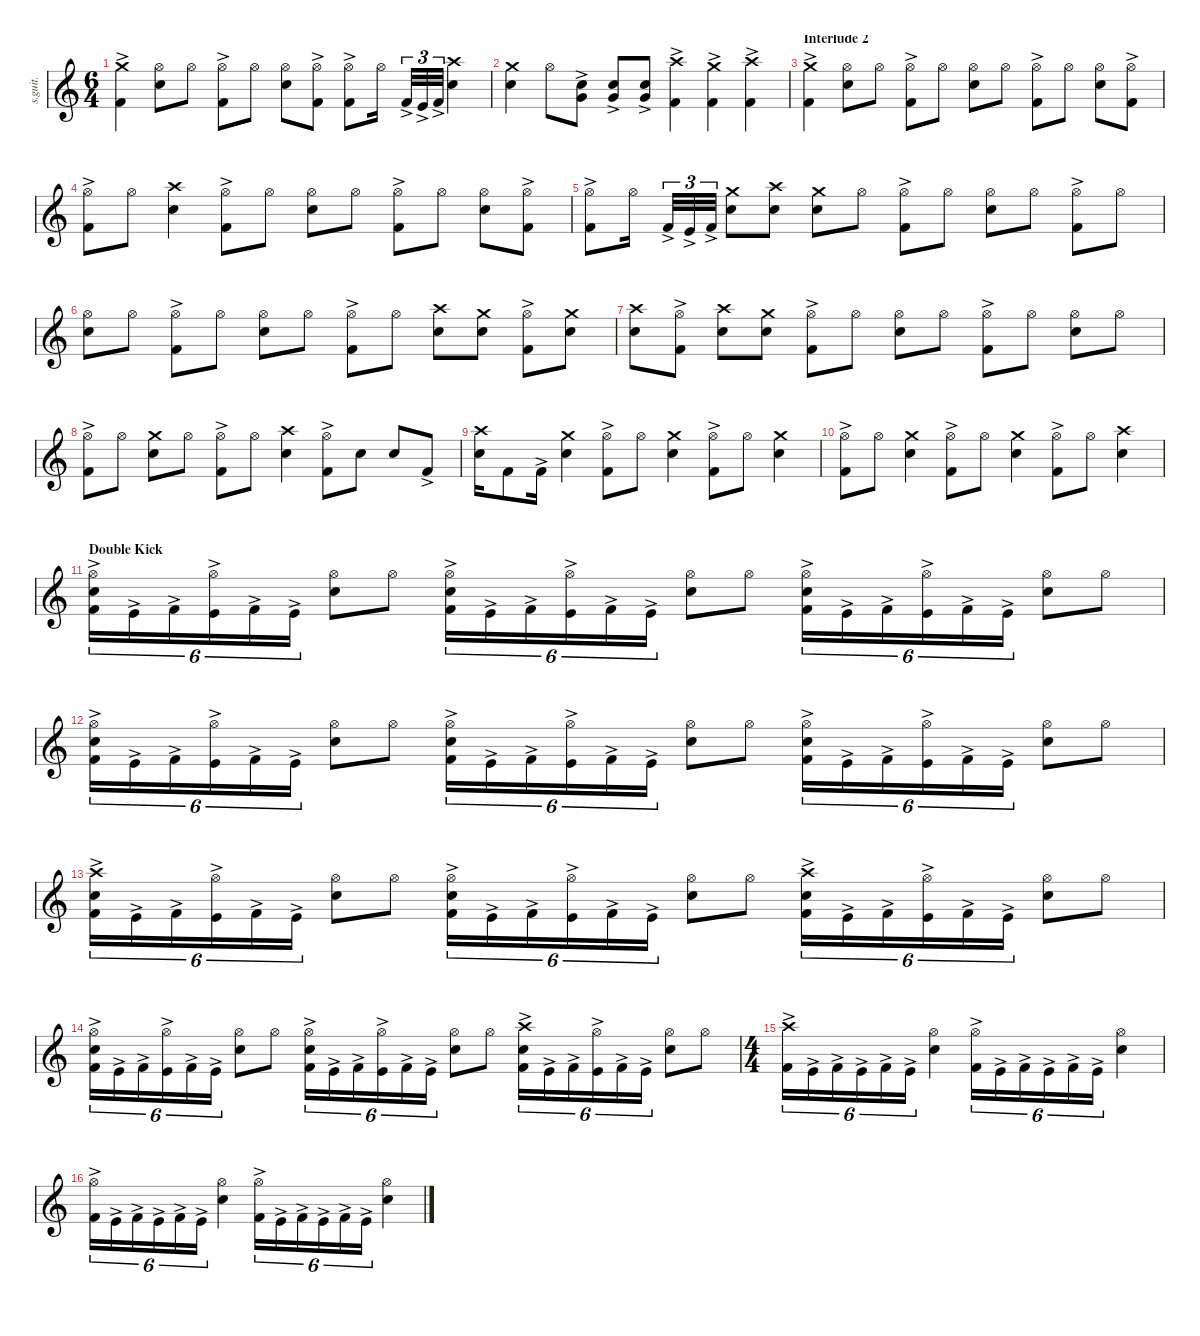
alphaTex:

\defaultSystemsLayout 4
\hideDynamics
\bracketExtendMode nobrackets
\track ("Lars Ulrich - Drums" "s.guit.") {instrument percussion}
\staff {score}
\articulation defaults
\ts (6 4)
\tempo (103 hide)
\clef g2
\ks c
("Crash medium (hit)" "Kick (hit) 2"{ac}).4{lyrics (0 "") lyrics (1 "") lyrics (2 "") lyrics (3 "") lyrics (4 "") dy f} ("Hi-Hat (open)" "Snare (hit) 2").8{lyrics (0 "") lyrics (1 "") lyrics (2 "") lyrics (3 "") lyrics (4 "")} "Hi-Hat (open)".8{lyrics (0 "") lyrics (1 "") lyrics (2 "") lyrics (3 "") lyrics (4 "")} ("Hi-Hat (open)" "Kick (hit) 2"{ac}).8{lyrics (0 "") lyrics (1 "") lyrics (2 "") lyrics (3 "") lyrics (4 "")} "Hi-Hat (open)".8{lyrics (0 "") lyrics (1 "") lyrics (2 "") lyrics (3 "") lyrics (4 "")} ("Hi-Hat (open)" "Snare (hit) 2").8{lyrics (0 "") lyrics (1 "") lyrics (2 "") lyrics (3 "") lyrics (4 "")} ("Hi-Hat (open)" "Kick (hit) 2"{ac}).8{lyrics (0 "") lyrics (1 "") lyrics (2 "") lyrics (3 "") lyrics (4 "")} ("Hi-Hat (open)" "Kick (hit) 2"{ac}).8{lyrics (0 "") lyrics (1 "") lyrics (2 "") lyrics (3 "") lyrics (4 "")} "Hi-Hat (open)".16{lyrics (0 "") lyrics (1 "") lyrics (2 "") lyrics (3 "") lyrics (4 "")} "Kick (hit) 2"{ac}.32{tu (3 2) lyrics (0 "") lyrics (1 "") lyrics (2 "") lyrics (3 "") lyrics (4 "") dy mp} "Kick (hit)"{ac}.32{tu (3 2) lyrics (0 "") lyrics (1 "") lyrics (2 "") lyrics (3 "") lyrics (4 "") dy mf} "Kick (hit) 2"{ac}.32{tu (3 2) lyrics (0 "") lyrics (1 "") lyrics (2 "") lyrics (3 "") lyrics (4 "") dy mp} ("Snare (hit) 2" "Crash high (hit)").4{lyrics (0 "") lyrics (1 "") lyrics (2 "") lyrics (3 "") lyrics (4 "") dy f} |
("Snare (hit) 2" "Crash medium (hit)").4{lyrics (0 "") lyrics (1 "") lyrics (2 "") lyrics (3 "") lyrics (4 "")} "Hi-Hat (open)".8{lyrics (0 "") lyrics (1 "") lyrics (2 "") lyrics (3 "") lyrics (4 "")} ("Very Low Tom (hit)"{ac} "Snare (hit) 2").8{lyrics (0 "") lyrics (1 "") lyrics (2 "") lyrics (3 "") lyrics (4 "")} ("Very Low Tom (hit)"{ac} "Snare (hit) 2").8{lyrics (0 "") lyrics (1 "") lyrics (2 "") lyrics (3 "") lyrics (4 "")} ("Very Low Tom (hit)"{ac} "Snare (hit) 2").8{lyrics (0 "") lyrics (1 "") lyrics (2 "") lyrics (3 "") lyrics (4 "")} ("Crash high (hit)" "Kick (hit) 2"{ac}).4{lyrics (0 "") lyrics (1 "") lyrics (2 "") lyrics (3 "") lyrics (4 "")} ("Crash medium (hit)" "Kick (hit) 2"{ac}).4{lyrics (0 "") lyrics (1 "") lyrics (2 "") lyrics (3 "") lyrics (4 "")} ("Crash high (hit)" "Kick (hit) 2"{ac}).4{lyrics (0 "") lyrics (1 "") lyrics (2 "") lyrics (3 "") lyrics (4 "")} |
\section ("" "Interlude 2")
\tempo (108 hide)
("Crash medium (hit)" "Kick (hit) 2"{ac}).4{lyrics (0 "") lyrics (1 "") lyrics (2 "") lyrics (3 "") lyrics (4 "")} ("Hi-Hat (open)" "Snare (hit) 2").8{lyrics (0 "") lyrics (1 "") lyrics (2 "") lyrics (3 "") lyrics (4 "")} "Hi-Hat (open)".8{lyrics (0 "") lyrics (1 "") lyrics (2 "") lyrics (3 "") lyrics (4 "")} ("Hi-Hat (open)" "Kick (hit) 2"{ac}).8{lyrics (0 "") lyrics (1 "") lyrics (2 "") lyrics (3 "") lyrics (4 "")} "Hi-Hat (open)".8{lyrics (0 "") lyrics (1 "") lyrics (2 "") lyrics (3 "") lyrics (4 "")} ("Hi-Hat (open)" "Snare (hit) 2").8{lyrics (0 "") lyrics (1 "") lyrics (2 "") lyrics (3 "") lyrics (4 "")} "Hi-Hat (open)".8{lyrics (0 "") lyrics (1 "") lyrics (2 "") lyrics (3 "") lyrics (4 "")} ("Hi-Hat (open)" "Kick (hit) 2"{ac}).8{lyrics (0 "") lyrics (1 "") lyrics (2 "") lyrics (3 "") lyrics (4 "")} "Hi-Hat (open)".8{lyrics (0 "") lyrics (1 "") lyrics (2 "") lyrics (3 "") lyrics (4 "")} ("Hi-Hat (open)" "Snare (hit) 2").8{lyrics (0 "") lyrics (1 "") lyrics (2 "") lyrics (3 "") lyrics (4 "")} ("Hi-Hat (open)" "Kick (hit) 2"{ac}).8{lyrics (0 "") lyrics (1 "") lyrics (2 "") lyrics (3 "") lyrics (4 "")} |
("Hi-Hat (open)" "Kick (hit) 2"{ac}).8{lyrics (0 "") lyrics (1 "") lyrics (2 "") lyrics (3 "") lyrics (4 "")} "Hi-Hat (open)".8{lyrics (0 "") lyrics (1 "") lyrics (2 "") lyrics (3 "") lyrics (4 "")} ("Crash high (hit)" "Snare (hit) 2").4{lyrics (0 "") lyrics (1 "") lyrics (2 "") lyrics (3 "") lyrics (4 "")} ("Hi-Hat (open)" "Kick (hit) 2"{ac}).8{lyrics (0 "") lyrics (1 "") lyrics (2 "") lyrics (3 "") lyrics (4 "")} "Hi-Hat (open)".8{lyrics (0 "") lyrics (1 "") lyrics (2 "") lyrics (3 "") lyrics (4 "")} ("Hi-Hat (open)" "Snare (hit) 2").8{lyrics (0 "") lyrics (1 "") lyrics (2 "") lyrics (3 "") lyrics (4 "")} "Hi-Hat (open)".8{lyrics (0 "") lyrics (1 "") lyrics (2 "") lyrics (3 "") lyrics (4 "")} ("Hi-Hat (open)" "Kick (hit) 2"{ac}).8{lyrics (0 "") lyrics (1 "") lyrics (2 "") lyrics (3 "") lyrics (4 "")} "Hi-Hat (open)".8{lyrics (0 "") lyrics (1 "") lyrics (2 "") lyrics (3 "") lyrics (4 "")} ("Hi-Hat (open)" "Snare (hit) 2").8{lyrics (0 "") lyrics (1 "") lyrics (2 "") lyrics (3 "") lyrics (4 "")} ("Hi-Hat (open)" "Kick (hit) 2"{ac}).8{lyrics (0 "") lyrics (1 "") lyrics (2 "") lyrics (3 "") lyrics (4 "")} |
("Kick (hit) 2"{ac} "Hi-Hat (open)").8{lyrics (0 "") lyrics (1 "") lyrics (2 "") lyrics (3 "") lyrics (4 "")} "Hi-Hat (open)".16{lyrics (0 "") lyrics (1 "") lyrics (2 "") lyrics (3 "") lyrics (4 "")} "Kick (hit) 2"{ac}.32{tu (3 2) lyrics (0 "") lyrics (1 "") lyrics (2 "") lyrics (3 "") lyrics (4 "") dy mp} "Kick (hit)"{ac}.32{tu (3 2) lyrics (0 "") lyrics (1 "") lyrics (2 "") lyrics (3 "") lyrics (4 "") dy mf} "Kick (hit) 2"{ac}.32{tu (3 2) lyrics (0 "") lyrics (1 "") lyrics (2 "") lyrics (3 "") lyrics (4 "") dy mp} ("Crash medium (hit)" "Snare (hit) 2").8{lyrics (0 "") lyrics (1 "") lyrics (2 "") lyrics (3 "") lyrics (4 "") dy f} ("Crash high (hit)" "Snare (hit) 2").8{lyrics (0 "") lyrics (1 "") lyrics (2 "") lyrics (3 "") lyrics (4 "")} ("Crash medium (hit)" "Snare (hit) 2").8{lyrics (0 "") lyrics (1 "") lyrics (2 "") lyrics (3 "") lyrics (4 "")} "Hi-Hat (open)".8{lyrics (0 "") lyrics (1 "") lyrics (2 "") lyrics (3 "") lyrics (4 "")} ("Hi-Hat (open)" "Kick (hit) 2"{ac}).8{lyrics (0 "") lyrics (1 "") lyrics (2 "") lyrics (3 "") lyrics (4 "")} "Hi-Hat (open)".8{lyrics (0 "") lyrics (1 "") lyrics (2 "") lyrics (3 "") lyrics (4 "")} ("Hi-Hat (open)" "Snare (hit) 2").8{lyrics (0 "") lyrics (1 "") lyrics (2 "") lyrics (3 "") lyrics (4 "")} "Hi-Hat (open)".8{lyrics (0 "") lyrics (1 "") lyrics (2 "") lyrics (3 "") lyrics (4 "")} ("Hi-Hat (open)" "Kick (hit) 2"{ac}).8{lyrics (0 "") lyrics (1 "") lyrics (2 "") lyrics (3 "") lyrics (4 "")} "Hi-Hat (open)".8{lyrics (0 "") lyrics (1 "") lyrics (2 "") lyrics (3 "") lyrics (4 "")} |
("Hi-Hat (open)" "Snare (hit) 2").8{lyrics (0 "") lyrics (1 "") lyrics (2 "") lyrics (3 "") lyrics (4 "")} "Hi-Hat (open)".8{lyrics (0 "") lyrics (1 "") lyrics (2 "") lyrics (3 "") lyrics (4 "")} ("Hi-Hat (open)" "Kick (hit) 2"{ac}).8{lyrics (0 "") lyrics (1 "") lyrics (2 "") lyrics (3 "") lyrics (4 "")} "Hi-Hat (open)".8{lyrics (0 "") lyrics (1 "") lyrics (2 "") lyrics (3 "") lyrics (4 "")} ("Hi-Hat (open)" "Snare (hit) 2").8{lyrics (0 "") lyrics (1 "") lyrics (2 "") lyrics (3 "") lyrics (4 "")} "Hi-Hat (open)".8{lyrics (0 "") lyrics (1 "") lyrics (2 "") lyrics (3 "") lyrics (4 "")} ("Hi-Hat (open)" "Kick (hit) 2"{ac}).8{lyrics (0 "") lyrics (1 "") lyrics (2 "") lyrics (3 "") lyrics (4 "")} "Hi-Hat (open)".8{lyrics (0 "") lyrics (1 "") lyrics (2 "") lyrics (3 "") lyrics (4 "")} ("Crash high (hit)" "Snare (hit) 2").8{lyrics (0 "") lyrics (1 "") lyrics (2 "") lyrics (3 "") lyrics (4 "")} ("Crash medium (hit)" "Snare (hit) 2").8{lyrics (0 "") lyrics (1 "") lyrics (2 "") lyrics (3 "") lyrics (4 "")} ("Hi-Hat (open)" "Kick (hit) 2"{ac}).8{lyrics (0 "") lyrics (1 "") lyrics (2 "") lyrics (3 "") lyrics (4 "")} ("Crash medium (hit)" "Snare (hit) 2").8{lyrics (0 "") lyrics (1 "") lyrics (2 "") lyrics (3 "") lyrics (4 "")} |
("Crash high (hit)" "Snare (hit) 2").8{lyrics (0 "") lyrics (1 "") lyrics (2 "") lyrics (3 "") lyrics (4 "")} ("Hi-Hat (open)" "Kick (hit) 2"{ac}).8{lyrics (0 "") lyrics (1 "") lyrics (2 "") lyrics (3 "") lyrics (4 "")} ("Crash high (hit)" "Snare (hit) 2").8{lyrics (0 "") lyrics (1 "") lyrics (2 "") lyrics (3 "") lyrics (4 "")} ("Crash medium (hit)" "Snare (hit) 2").8{lyrics (0 "") lyrics (1 "") lyrics (2 "") lyrics (3 "") lyrics (4 "")} ("Hi-Hat (open)" "Kick (hit) 2"{ac}).8{lyrics (0 "") lyrics (1 "") lyrics (2 "") lyrics (3 "") lyrics (4 "")} "Hi-Hat (open)".8{lyrics (0 "") lyrics (1 "") lyrics (2 "") lyrics (3 "") lyrics (4 "")} ("Hi-Hat (open)" "Snare (hit) 2").8{lyrics (0 "") lyrics (1 "") lyrics (2 "") lyrics (3 "") lyrics (4 "")} "Hi-Hat (open)".8{lyrics (0 "") lyrics (1 "") lyrics (2 "") lyrics (3 "") lyrics (4 "")} ("Hi-Hat (open)" "Kick (hit) 2"{ac}).8{lyrics (0 "") lyrics (1 "") lyrics (2 "") lyrics (3 "") lyrics (4 "")} "Hi-Hat (open)".8{lyrics (0 "") lyrics (1 "") lyrics (2 "") lyrics (3 "") lyrics (4 "")} ("Hi-Hat (open)" "Snare (hit) 2").8{lyrics (0 "") lyrics (1 "") lyrics (2 "") lyrics (3 "") lyrics (4 "")} "Hi-Hat (open)".8{lyrics (0 "") lyrics (1 "") lyrics (2 "") lyrics (3 "") lyrics (4 "")} |
("Hi-Hat (open)" "Kick (hit) 2"{ac}).8{lyrics (0 "") lyrics (1 "") lyrics (2 "") lyrics (3 "") lyrics (4 "")} "Hi-Hat (open)".8{lyrics (0 "") lyrics (1 "") lyrics (2 "") lyrics (3 "") lyrics (4 "")} ("Crash medium (hit)" "Snare (hit) 2").8{lyrics (0 "") lyrics (1 "") lyrics (2 "") lyrics (3 "") lyrics (4 "")} "Hi-Hat (open)".8{lyrics (0 "") lyrics (1 "") lyrics (2 "") lyrics (3 "") lyrics (4 "")} ("Hi-Hat (open)" "Kick (hit) 2"{ac}).8{lyrics (0 "") lyrics (1 "") lyrics (2 "") lyrics (3 "") lyrics (4 "")} "Hi-Hat (open)".8{lyrics (0 "") lyrics (1 "") lyrics (2 "") lyrics (3 "") lyrics (4 "")} ("Crash high (hit)" "Snare (hit) 2").4{lyrics (0 "") lyrics (1 "") lyrics (2 "") lyrics (3 "") lyrics (4 "")} ("Hi-Hat (open)" "Kick (hit) 2"{ac}).8{lyrics (0 "") lyrics (1 "") lyrics (2 "") lyrics (3 "") lyrics (4 "")} "Snare (hit) 2".8{lyrics (0 "") lyrics (1 "") lyrics (2 "") lyrics (3 "") lyrics (4 "")} "Snare (hit) 2".8{lyrics (0 "") lyrics (1 "") lyrics (2 "") lyrics (3 "") lyrics (4 "")} "Kick (hit) 2"{ac}.8{lyrics (0 "") lyrics (1 "") lyrics (2 "") lyrics (3 "") lyrics (4 "") dy mp} |
("Snare (hit) 2" "Crash high (hit)").16{lyrics (0 "") lyrics (1 "") lyrics (2 "") lyrics (3 "") lyrics (4 "") dy f} "Kick (hit) 2".8{lyrics (0 "") lyrics (1 "") lyrics (2 "") lyrics (3 "") lyrics (4 "")} "Kick (hit) 2"{ac}.16{lyrics (0 "") lyrics (1 "") lyrics (2 "") lyrics (3 "") lyrics (4 "") dy mp} ("Crash medium (hit)" "Snare (hit) 2").4{lyrics (0 "") lyrics (1 "") lyrics (2 "") lyrics (3 "") lyrics (4 "") dy f} ("Hi-Hat (open)" "Kick (hit) 2"{ac}).8{lyrics (0 "") lyrics (1 "") lyrics (2 "") lyrics (3 "") lyrics (4 "")} "Hi-Hat (open)".8{lyrics (0 "") lyrics (1 "") lyrics (2 "") lyrics (3 "") lyrics (4 "")} ("Snare (hit) 2" "Crash medium (hit)").4{lyrics (0 "") lyrics (1 "") lyrics (2 "") lyrics (3 "") lyrics (4 "")} ("Hi-Hat (open)" "Kick (hit) 2"{ac}).8{lyrics (0 "") lyrics (1 "") lyrics (2 "") lyrics (3 "") lyrics (4 "")} "Hi-Hat (open)".8{lyrics (0 "") lyrics (1 "") lyrics (2 "") lyrics (3 "") lyrics (4 "")} ("Crash medium (hit)" "Snare (hit) 2").4{lyrics (0 "") lyrics (1 "") lyrics (2 "") lyrics (3 "") lyrics (4 "")} |
("Hi-Hat (open)" "Kick (hit) 2"{ac}).8{lyrics (0 "") lyrics (1 "") lyrics (2 "") lyrics (3 "") lyrics (4 "")} "Hi-Hat (open)".8{lyrics (0 "") lyrics (1 "") lyrics (2 "") lyrics (3 "") lyrics (4 "")} ("Crash medium (hit)" "Snare (hit) 2").4{lyrics (0 "") lyrics (1 "") lyrics (2 "") lyrics (3 "") lyrics (4 "")} ("Hi-Hat (open)" "Kick (hit) 2"{ac}).8{lyrics (0 "") lyrics (1 "") lyrics (2 "") lyrics (3 "") lyrics (4 "")} "Hi-Hat (open)".8{lyrics (0 "") lyrics (1 "") lyrics (2 "") lyrics (3 "") lyrics (4 "")} ("Crash medium (hit)" "Snare (hit) 2").4{lyrics (0 "") lyrics (1 "") lyrics (2 "") lyrics (3 "") lyrics (4 "")} ("Hi-Hat (open)" "Kick (hit) 2"{ac}).8{lyrics (0 "") lyrics (1 "") lyrics (2 "") lyrics (3 "") lyrics (4 "")} "Hi-Hat (open)".8{lyrics (0 "") lyrics (1 "") lyrics (2 "") lyrics (3 "") lyrics (4 "")} ("Crash high (hit)" "Snare (hit) 2").4{lyrics (0 "") lyrics (1 "") lyrics (2 "") lyrics (3 "") lyrics (4 "")} |
\section ("" "Double Kick")
("Hi-Hat (open)" "Snare (hit) 2" "Kick (hit) 2"{ac}).16{tu (6 4) lyrics (0 "") lyrics (1 "") lyrics (2 "") lyrics (3 "") lyrics (4 "")} "Kick (hit)"{ac}.16{tu (6 4) lyrics (0 "") lyrics (1 "") lyrics (2 "") lyrics (3 "") lyrics (4 "") dy mf} "Kick (hit) 2"{ac}.16{tu (6 4) lyrics (0 "") lyrics (1 "") lyrics (2 "") lyrics (3 "") lyrics (4 "") dy mp} ("Hi-Hat (open)" "Kick (hit)"{ac}).16{tu (6 4) lyrics (0 "") lyrics (1 "") lyrics (2 "") lyrics (3 "") lyrics (4 "") dy f} "Kick (hit) 2"{ac}.16{tu (6 4) lyrics (0 "") lyrics (1 "") lyrics (2 "") lyrics (3 "") lyrics (4 "")} "Kick (hit)"{ac}.16{tu (6 4) lyrics (0 "") lyrics (1 "") lyrics (2 "") lyrics (3 "") lyrics (4 "")} ("Hi-Hat (open)" "Snare (hit) 2").8{lyrics (0 "") lyrics (1 "") lyrics (2 "") lyrics (3 "") lyrics (4 "")} "Hi-Hat (open)".8{lyrics (0 "") lyrics (1 "") lyrics (2 "") lyrics (3 "") lyrics (4 "")} ("Hi-Hat (open)" "Snare (hit) 2" "Kick (hit) 2"{ac}).16{tu (6 4) lyrics (0 "") lyrics (1 "") lyrics (2 "") lyrics (3 "") lyrics (4 "")} "Kick (hit)"{ac}.16{tu (6 4) lyrics (0 "") lyrics (1 "") lyrics (2 "") lyrics (3 "") lyrics (4 "")} "Kick (hit) 2"{ac}.16{tu (6 4) lyrics (0 "") lyrics (1 "") lyrics (2 "") lyrics (3 "") lyrics (4 "") dy mp} ("Hi-Hat (open)" "Kick (hit)"{ac}).16{tu (6 4) lyrics (0 "") lyrics (1 "") lyrics (2 "") lyrics (3 "") lyrics (4 "") dy f} "Kick (hit) 2"{ac}.16{tu (6 4) lyrics (0 "") lyrics (1 "") lyrics (2 "") lyrics (3 "") lyrics (4 "") dy mp} "Kick (hit)"{ac}.16{tu (6 4) lyrics (0 "") lyrics (1 "") lyrics (2 "") lyrics (3 "") lyrics (4 "")} ("Hi-Hat (open)" "Snare (hit) 2").8{lyrics (0 "") lyrics (1 "") lyrics (2 "") lyrics (3 "") lyrics (4 "") dy f} "Hi-Hat (open)".8{lyrics (0 "") lyrics (1 "") lyrics (2 "") lyrics (3 "") lyrics (4 "")} ("Hi-Hat (open)" "Snare (hit) 2" "Kick (hit) 2"{ac}).16{tu (6 4) lyrics (0 "") lyrics (1 "") lyrics (2 "") lyrics (3 "") lyrics (4 "")} "Kick (hit)"{ac}.16{tu (6 4) lyrics (0 "") lyrics (1 "") lyrics (2 "") lyrics (3 "") lyrics (4 "")} "Kick (hit) 2"{ac}.16{tu (6 4) lyrics (0 "") lyrics (1 "") lyrics (2 "") lyrics (3 "") lyrics (4 "") dy mp} ("Hi-Hat (open)" "Kick (hit)"{ac}).16{tu (6 4) lyrics (0 "") lyrics (1 "") lyrics (2 "") lyrics (3 "") lyrics (4 "") dy f} "Kick (hit) 2"{ac}.16{tu (6 4) lyrics (0 "") lyrics (1 "") lyrics (2 "") lyrics (3 "") lyrics (4 "") dy mp} "Kick (hit)"{ac}.16{tu (6 4) lyrics (0 "") lyrics (1 "") lyrics (2 "") lyrics (3 "") lyrics (4 "")} ("Hi-Hat (open)" "Snare (hit) 2").8{lyrics (0 "") lyrics (1 "") lyrics (2 "") lyrics (3 "") lyrics (4 "") dy f} "Hi-Hat (open)".8{lyrics (0 "") lyrics (1 "") lyrics (2 "") lyrics (3 "") lyrics (4 "")} |
("Hi-Hat (open)" "Snare (hit) 2" "Kick (hit) 2"{ac}).16{tu (6 4) lyrics (0 "") lyrics (1 "") lyrics (2 "") lyrics (3 "") lyrics (4 "")} "Kick (hit)"{ac}.16{tu (6 4) lyrics (0 "") lyrics (1 "") lyrics (2 "") lyrics (3 "") lyrics (4 "") dy mf} "Kick (hit) 2"{ac}.16{tu (6 4) lyrics (0 "") lyrics (1 "") lyrics (2 "") lyrics (3 "") lyrics (4 "") dy mp} ("Hi-Hat (open)" "Kick (hit)"{ac}).16{tu (6 4) lyrics (0 "") lyrics (1 "") lyrics (2 "") lyrics (3 "") lyrics (4 "") dy f} "Kick (hit) 2"{ac}.16{tu (6 4) lyrics (0 "") lyrics (1 "") lyrics (2 "") lyrics (3 "") lyrics (4 "")} "Kick (hit)"{ac}.16{tu (6 4) lyrics (0 "") lyrics (1 "") lyrics (2 "") lyrics (3 "") lyrics (4 "")} ("Hi-Hat (open)" "Snare (hit) 2").8{lyrics (0 "") lyrics (1 "") lyrics (2 "") lyrics (3 "") lyrics (4 "")} "Hi-Hat (open)".8{lyrics (0 "") lyrics (1 "") lyrics (2 "") lyrics (3 "") lyrics (4 "")} ("Hi-Hat (open)" "Snare (hit) 2" "Kick (hit) 2"{ac}).16{tu (6 4) lyrics (0 "") lyrics (1 "") lyrics (2 "") lyrics (3 "") lyrics (4 "")} "Kick (hit)"{ac}.16{tu (6 4) lyrics (0 "") lyrics (1 "") lyrics (2 "") lyrics (3 "") lyrics (4 "")} "Kick (hit) 2"{ac}.16{tu (6 4) lyrics (0 "") lyrics (1 "") lyrics (2 "") lyrics (3 "") lyrics (4 "") dy mp} ("Hi-Hat (open)" "Kick (hit)"{ac}).16{tu (6 4) lyrics (0 "") lyrics (1 "") lyrics (2 "") lyrics (3 "") lyrics (4 "") dy f} "Kick (hit) 2"{ac}.16{tu (6 4) lyrics (0 "") lyrics (1 "") lyrics (2 "") lyrics (3 "") lyrics (4 "") dy mp} "Kick (hit)"{ac}.16{tu (6 4) lyrics (0 "") lyrics (1 "") lyrics (2 "") lyrics (3 "") lyrics (4 "")} ("Hi-Hat (open)" "Snare (hit) 2").8{lyrics (0 "") lyrics (1 "") lyrics (2 "") lyrics (3 "") lyrics (4 "") dy f} "Hi-Hat (open)".8{lyrics (0 "") lyrics (1 "") lyrics (2 "") lyrics (3 "") lyrics (4 "")} ("Hi-Hat (open)" "Snare (hit) 2" "Kick (hit) 2"{ac}).16{tu (6 4) lyrics (0 "") lyrics (1 "") lyrics (2 "") lyrics (3 "") lyrics (4 "")} "Kick (hit)"{ac}.16{tu (6 4) lyrics (0 "") lyrics (1 "") lyrics (2 "") lyrics (3 "") lyrics (4 "")} "Kick (hit) 2"{ac}.16{tu (6 4) lyrics (0 "") lyrics (1 "") lyrics (2 "") lyrics (3 "") lyrics (4 "") dy mp} ("Hi-Hat (open)" "Kick (hit)"{ac}).16{tu (6 4) lyrics (0 "") lyrics (1 "") lyrics (2 "") lyrics (3 "") lyrics (4 "") dy f} "Kick (hit) 2"{ac}.16{tu (6 4) lyrics (0 "") lyrics (1 "") lyrics (2 "") lyrics (3 "") lyrics (4 "") dy mp} "Kick (hit)"{ac}.16{tu (6 4) lyrics (0 "") lyrics (1 "") lyrics (2 "") lyrics (3 "") lyrics (4 "")} ("Hi-Hat (open)" "Snare (hit) 2").8{lyrics (0 "") lyrics (1 "") lyrics (2 "") lyrics (3 "") lyrics (4 "") dy f} "Hi-Hat (open)".8{lyrics (0 "") lyrics (1 "") lyrics (2 "") lyrics (3 "") lyrics (4 "")} |
("Snare (hit) 2" "Kick (hit) 2"{ac} "Crash high (hit)").16{tu (6 4) lyrics (0 "") lyrics (1 "") lyrics (2 "") lyrics (3 "") lyrics (4 "")} "Kick (hit)"{ac}.16{tu (6 4) lyrics (0 "") lyrics (1 "") lyrics (2 "") lyrics (3 "") lyrics (4 "") dy mf} "Kick (hit) 2"{ac}.16{tu (6 4) lyrics (0 "") lyrics (1 "") lyrics (2 "") lyrics (3 "") lyrics (4 "") dy mp} ("Hi-Hat (open)" "Kick (hit)"{ac}).16{tu (6 4) lyrics (0 "") lyrics (1 "") lyrics (2 "") lyrics (3 "") lyrics (4 "") dy f} "Kick (hit) 2"{ac}.16{tu (6 4) lyrics (0 "") lyrics (1 "") lyrics (2 "") lyrics (3 "") lyrics (4 "")} "Kick (hit)"{ac}.16{tu (6 4) lyrics (0 "") lyrics (1 "") lyrics (2 "") lyrics (3 "") lyrics (4 "")} ("Hi-Hat (open)" "Snare (hit) 2").8{lyrics (0 "") lyrics (1 "") lyrics (2 "") lyrics (3 "") lyrics (4 "")} "Hi-Hat (open)".8{lyrics (0 "") lyrics (1 "") lyrics (2 "") lyrics (3 "") lyrics (4 "")} ("Hi-Hat (open)" "Snare (hit) 2" "Kick (hit) 2"{ac}).16{tu (6 4) lyrics (0 "") lyrics (1 "") lyrics (2 "") lyrics (3 "") lyrics (4 "")} "Kick (hit)"{ac}.16{tu (6 4) lyrics (0 "") lyrics (1 "") lyrics (2 "") lyrics (3 "") lyrics (4 "")} "Kick (hit) 2"{ac}.16{tu (6 4) lyrics (0 "") lyrics (1 "") lyrics (2 "") lyrics (3 "") lyrics (4 "") dy mp} ("Hi-Hat (open)" "Kick (hit)"{ac}).16{tu (6 4) lyrics (0 "") lyrics (1 "") lyrics (2 "") lyrics (3 "") lyrics (4 "") dy f} "Kick (hit) 2"{ac}.16{tu (6 4) lyrics (0 "") lyrics (1 "") lyrics (2 "") lyrics (3 "") lyrics (4 "") dy mp} "Kick (hit)"{ac}.16{tu (6 4) lyrics (0 "") lyrics (1 "") lyrics (2 "") lyrics (3 "") lyrics (4 "")} ("Hi-Hat (open)" "Snare (hit) 2").8{lyrics (0 "") lyrics (1 "") lyrics (2 "") lyrics (3 "") lyrics (4 "") dy f} "Hi-Hat (open)".8{lyrics (0 "") lyrics (1 "") lyrics (2 "") lyrics (3 "") lyrics (4 "")} ("Snare (hit) 2" "Kick (hit) 2"{ac} "Crash high (hit)").16{tu (6 4) lyrics (0 "") lyrics (1 "") lyrics (2 "") lyrics (3 "") lyrics (4 "")} "Kick (hit)"{ac}.16{tu (6 4) lyrics (0 "") lyrics (1 "") lyrics (2 "") lyrics (3 "") lyrics (4 "")} "Kick (hit) 2"{ac}.16{tu (6 4) lyrics (0 "") lyrics (1 "") lyrics (2 "") lyrics (3 "") lyrics (4 "") dy mp} ("Hi-Hat (open)" "Kick (hit)"{ac}).16{tu (6 4) lyrics (0 "") lyrics (1 "") lyrics (2 "") lyrics (3 "") lyrics (4 "") dy f} "Kick (hit) 2"{ac}.16{tu (6 4) lyrics (0 "") lyrics (1 "") lyrics (2 "") lyrics (3 "") lyrics (4 "") dy mp} "Kick (hit)"{ac}.16{tu (6 4) lyrics (0 "") lyrics (1 "") lyrics (2 "") lyrics (3 "") lyrics (4 "")} ("Hi-Hat (open)" "Snare (hit) 2").8{lyrics (0 "") lyrics (1 "") lyrics (2 "") lyrics (3 "") lyrics (4 "") dy f} "Hi-Hat (open)".8{lyrics (0 "") lyrics (1 "") lyrics (2 "") lyrics (3 "") lyrics (4 "")} |
("Hi-Hat (open)" "Snare (hit) 2" "Kick (hit) 2"{ac}).16{tu (6 4) lyrics (0 "") lyrics (1 "") lyrics (2 "") lyrics (3 "") lyrics (4 "")} "Kick (hit)"{ac}.16{tu (6 4) lyrics (0 "") lyrics (1 "") lyrics (2 "") lyrics (3 "") lyrics (4 "") dy mf} "Kick (hit) 2"{ac}.16{tu (6 4) lyrics (0 "") lyrics (1 "") lyrics (2 "") lyrics (3 "") lyrics (4 "") dy mp} ("Hi-Hat (open)" "Kick (hit)"{ac}).16{tu (6 4) lyrics (0 "") lyrics (1 "") lyrics (2 "") lyrics (3 "") lyrics (4 "") dy f} "Kick (hit) 2"{ac}.16{tu (6 4) lyrics (0 "") lyrics (1 "") lyrics (2 "") lyrics (3 "") lyrics (4 "")} "Kick (hit)"{ac}.16{tu (6 4) lyrics (0 "") lyrics (1 "") lyrics (2 "") lyrics (3 "") lyrics (4 "")} ("Hi-Hat (open)" "Snare (hit) 2").8{lyrics (0 "") lyrics (1 "") lyrics (2 "") lyrics (3 "") lyrics (4 "")} "Hi-Hat (open)".8{lyrics (0 "") lyrics (1 "") lyrics (2 "") lyrics (3 "") lyrics (4 "")} ("Hi-Hat (open)" "Snare (hit) 2" "Kick (hit) 2"{ac}).16{tu (6 4) lyrics (0 "") lyrics (1 "") lyrics (2 "") lyrics (3 "") lyrics (4 "")} "Kick (hit)"{ac}.16{tu (6 4) lyrics (0 "") lyrics (1 "") lyrics (2 "") lyrics (3 "") lyrics (4 "")} "Kick (hit) 2"{ac}.16{tu (6 4) lyrics (0 "") lyrics (1 "") lyrics (2 "") lyrics (3 "") lyrics (4 "") dy mp} ("Hi-Hat (open)" "Kick (hit)"{ac}).16{tu (6 4) lyrics (0 "") lyrics (1 "") lyrics (2 "") lyrics (3 "") lyrics (4 "") dy f} "Kick (hit) 2"{ac}.16{tu (6 4) lyrics (0 "") lyrics (1 "") lyrics (2 "") lyrics (3 "") lyrics (4 "") dy mp} "Kick (hit)"{ac}.16{tu (6 4) lyrics (0 "") lyrics (1 "") lyrics (2 "") lyrics (3 "") lyrics (4 "")} ("Hi-Hat (open)" "Snare (hit) 2").8{lyrics (0 "") lyrics (1 "") lyrics (2 "") lyrics (3 "") lyrics (4 "") dy f} "Hi-Hat (open)".8{lyrics (0 "") lyrics (1 "") lyrics (2 "") lyrics (3 "") lyrics (4 "")} ("Snare (hit) 2" "Kick (hit) 2"{ac} "Crash high (hit)").16{tu (6 4) lyrics (0 "") lyrics (1 "") lyrics (2 "") lyrics (3 "") lyrics (4 "")} "Kick (hit)"{ac}.16{tu (6 4) lyrics (0 "") lyrics (1 "") lyrics (2 "") lyrics (3 "") lyrics (4 "")} "Kick (hit) 2"{ac}.16{tu (6 4) lyrics (0 "") lyrics (1 "") lyrics (2 "") lyrics (3 "") lyrics (4 "") dy mp} ("Hi-Hat (open)" "Kick (hit)"{ac}).16{tu (6 4) lyrics (0 "") lyrics (1 "") lyrics (2 "") lyrics (3 "") lyrics (4 "") dy f} "Kick (hit) 2"{ac}.16{tu (6 4) lyrics (0 "") lyrics (1 "") lyrics (2 "") lyrics (3 "") lyrics (4 "") dy mp} "Kick (hit)"{ac}.16{tu (6 4) lyrics (0 "") lyrics (1 "") lyrics (2 "") lyrics (3 "") lyrics (4 "")} ("Hi-Hat (open)" "Snare (hit) 2").8{lyrics (0 "") lyrics (1 "") lyrics (2 "") lyrics (3 "") lyrics (4 "") dy f} "Hi-Hat (open)".8{lyrics (0 "") lyrics (1 "") lyrics (2 "") lyrics (3 "") lyrics (4 "")} |
\ts (4 4)
\beaming (8 2 2 2 2)
("Kick (hit) 2"{ac} "Crash high (hit)").16{tu (6 4) lyrics (0 "") lyrics (1 "") lyrics (2 "") lyrics (3 "") lyrics (4 "")} "Kick (hit)"{ac}.16{tu (6 4) lyrics (0 "") lyrics (1 "") lyrics (2 "") lyrics (3 "") lyrics (4 "")} "Kick (hit) 2"{ac}.16{tu (6 4) lyrics (0 "") lyrics (1 "") lyrics (2 "") lyrics (3 "") lyrics (4 "") dy mp} "Kick (hit)"{ac}.16{tu (6 4) lyrics (0 "") lyrics (1 "") lyrics (2 "") lyrics (3 "") lyrics (4 "")} "Kick (hit) 2"{ac}.16{tu (6 4) lyrics (0 "") lyrics (1 "") lyrics (2 "") lyrics (3 "") lyrics (4 "")} "Kick (hit)"{ac}.16{tu (6 4) lyrics (0 "") lyrics (1 "") lyrics (2 "") lyrics (3 "") lyrics (4 "")} ("Hi-Hat (open)" "Snare (hit) 2").4{lyrics (0 "") lyrics (1 "") lyrics (2 "") lyrics (3 "") lyrics (4 "") dy f} ("Hi-Hat (open)" "Kick (hit) 2"{ac}).16{tu (6 4) lyrics (0 "") lyrics (1 "") lyrics (2 "") lyrics (3 "") lyrics (4 "")} "Kick (hit)"{ac}.16{tu (6 4) lyrics (0 "") lyrics (1 "") lyrics (2 "") lyrics (3 "") lyrics (4 "")} "Kick (hit) 2"{ac}.16{tu (6 4) lyrics (0 "") lyrics (1 "") lyrics (2 "") lyrics (3 "") lyrics (4 "") dy mp} "Kick (hit)"{ac}.16{tu (6 4) lyrics (0 "") lyrics (1 "") lyrics (2 "") lyrics (3 "") lyrics (4 "")} "Kick (hit) 2"{ac}.16{tu (6 4) lyrics (0 "") lyrics (1 "") lyrics (2 "") lyrics (3 "") lyrics (4 "")} "Kick (hit)"{ac}.16{tu (6 4) lyrics (0 "") lyrics (1 "") lyrics (2 "") lyrics (3 "") lyrics (4 "")} ("Hi-Hat (open)" "Snare (hit) 2").4{lyrics (0 "") lyrics (1 "") lyrics (2 "") lyrics (3 "") lyrics (4 "") dy f} |
("Hi-Hat (open)" "Kick (hit) 2"{ac}).16{tu (6 4) lyrics (0 "") lyrics (1 "") lyrics (2 "") lyrics (3 "") lyrics (4 "")} "Kick (hit)"{ac}.16{tu (6 4) lyrics (0 "") lyrics (1 "") lyrics (2 "") lyrics (3 "") lyrics (4 "")} "Kick (hit) 2"{ac}.16{tu (6 4) lyrics (0 "") lyrics (1 "") lyrics (2 "") lyrics (3 "") lyrics (4 "") dy mp} "Kick (hit)"{ac}.16{tu (6 4) lyrics (0 "") lyrics (1 "") lyrics (2 "") lyrics (3 "") lyrics (4 "")} "Kick (hit) 2"{ac}.16{tu (6 4) lyrics (0 "") lyrics (1 "") lyrics (2 "") lyrics (3 "") lyrics (4 "")} "Kick (hit)"{ac}.16{tu (6 4) lyrics (0 "") lyrics (1 "") lyrics (2 "") lyrics (3 "") lyrics (4 "")} ("Hi-Hat (open)" "Snare (hit) 2").4{lyrics (0 "") lyrics (1 "") lyrics (2 "") lyrics (3 "") lyrics (4 "") dy f} ("Hi-Hat (open)" "Kick (hit) 2"{ac}).16{tu (6 4) lyrics (0 "") lyrics (1 "") lyrics (2 "") lyrics (3 "") lyrics (4 "")} "Kick (hit)"{ac}.16{tu (6 4) lyrics (0 "") lyrics (1 "") lyrics (2 "") lyrics (3 "") lyrics (4 "")} "Kick (hit) 2"{ac}.16{tu (6 4) lyrics (0 "") lyrics (1 "") lyrics (2 "") lyrics (3 "") lyrics (4 "") dy mp} "Kick (hit)"{ac}.16{tu (6 4) lyrics (0 "") lyrics (1 "") lyrics (2 "") lyrics (3 "") lyrics (4 "")} "Kick (hit) 2"{ac}.16{tu (6 4) lyrics (0 "") lyrics (1 "") lyrics (2 "") lyrics (3 "") lyrics (4 "")} "Kick (hit)"{ac}.16{tu (6 4) lyrics (0 "") lyrics (1 "") lyrics (2 "") lyrics (3 "") lyrics (4 "")} ("Hi-Hat (open)" "Snare (hit) 2").4{lyrics (0 "") lyrics (1 "") lyrics (2 "") lyrics (3 "") lyrics (4 "") dy f}
